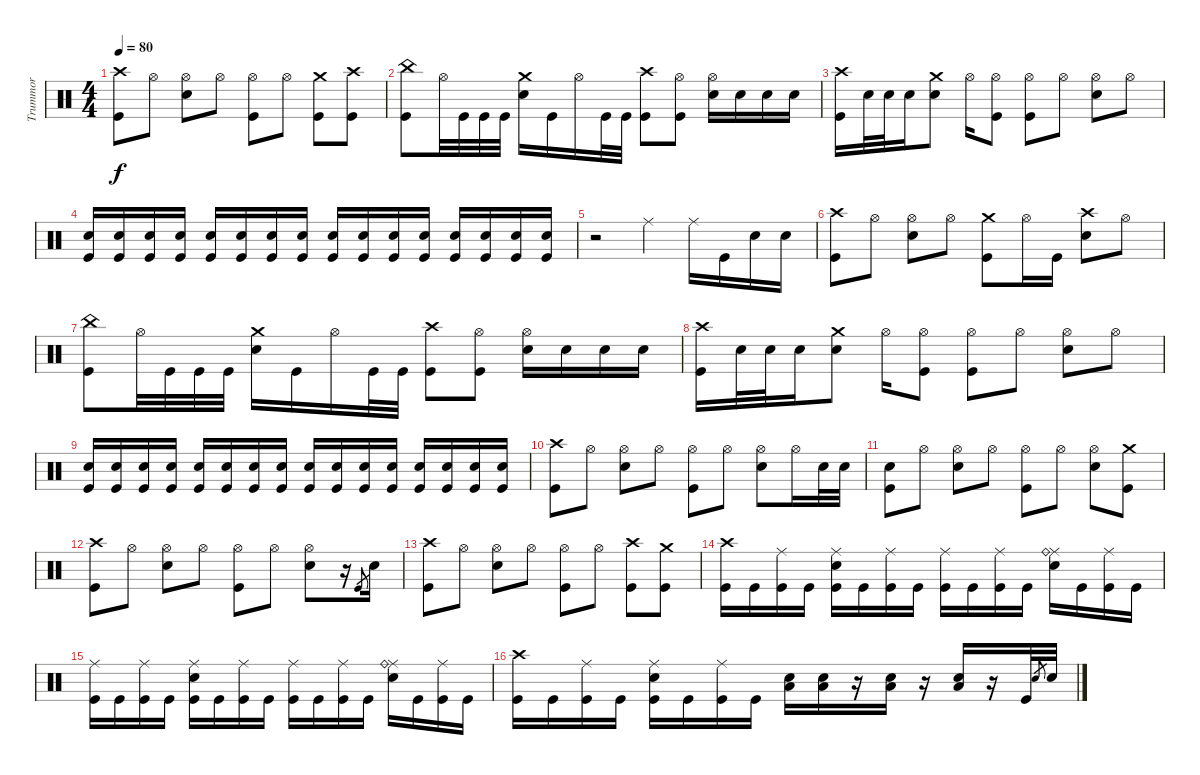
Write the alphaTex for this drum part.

\track ("Trummor" "Trummor") {instrument percussion}
\staff {score}
\articulation defaults
\ts (4 4)
\tempo 80
\clef neutral
\ks c
("Crash high (hit)" "Kick (hit)").8{dy f} "Hi-Hat (open)".8 ("Hi-Hat (open)" "Electric Snare (hit)").8 "Hi-Hat (open)".8 ("Hi-Hat (open)" "Kick (hit)").8 "Hi-Hat (open)".8 ("Crash medium (hit)" "Kick (hit)").8 ("Crash high (hit)" "Kick (hit)").8 |
("China (hit)" "Kick (hit)").8 "Hi-Hat (open)".32 "Kick (hit)".32 "Kick (hit)".32 "Kick (hit)".32 ("Crash medium (hit)" "Electric Snare (hit)").16 "Kick (hit)".16 "Hi-Hat (open)".16 "Kick (hit)".32 "Kick (hit)".32 ("Crash high (hit)" "Kick (hit)").8 ("Hi-Hat (open)" "Kick (hit)").8 ("Hi-Hat (open)" "Electric Snare (hit)").16 "Electric Snare (hit)".16 "Electric Snare (hit)".16 "Electric Snare (hit)".16 |
("Crash high (hit)" "Kick (hit)").16 "Electric Snare (hit)".32 "Electric Snare (hit)".32 "Electric Snare (hit)".16 ("Crash medium (hit)" "Electric Snare (hit)").8 "Hi-Hat (open)".16 ("Hi-Hat (open)" "Kick (hit)").8 ("Hi-Hat (open)" "Kick (hit)").8 "Hi-Hat (open)".8 ("Hi-Hat (open)" "Electric Snare (hit)").8 "Hi-Hat (open)".8 |
("Electric Snare (hit)" "Kick (hit)").16 ("Electric Snare (hit)" "Kick (hit)").16 ("Electric Snare (hit)" "Kick (hit)").16 ("Electric Snare (hit)" "Kick (hit)").16 ("Electric Snare (hit)" "Kick (hit)").16 ("Electric Snare (hit)" "Kick (hit)").16 ("Electric Snare (hit)" "Kick (hit)").16 ("Electric Snare (hit)" "Kick (hit)").16 ("Electric Snare (hit)" "Kick (hit)").16 ("Electric Snare (hit)" "Kick (hit)").16 ("Electric Snare (hit)" "Kick (hit)").16 ("Electric Snare (hit)" "Kick (hit)").16 ("Electric Snare (hit)" "Kick (hit)").16 ("Electric Snare (hit)" "Kick (hit)").16 ("Electric Snare (hit)" "Kick (hit)").16 ("Electric Snare (hit)" "Kick (hit)").16 |
r.2 "Ride (middle)".4 "Ride (middle)".16 "Kick (hit)".16 "Electric Snare (hit)".16 "Electric Snare (hit)".16 |
("Crash high (hit)" "Kick (hit)").8 "Hi-Hat (open)".8 ("Hi-Hat (open)" "Electric Snare (hit)").8 "Hi-Hat (open)".8 ("Crash medium (hit)" "Kick (hit)").8 "Hi-Hat (open)".16 "Kick (hit)".16 ("Crash high (hit)" "Electric Snare (hit)").8 "Hi-Hat (open)".8 |
("China (hit)" "Kick (hit)").8 "Hi-Hat (open)".32 "Kick (hit)".32 "Kick (hit)".32 "Kick (hit)".32 ("Crash medium (hit)" "Electric Snare (hit)").16 "Kick (hit)".16 "Hi-Hat (open)".16 "Kick (hit)".32 "Kick (hit)".32 ("Crash high (hit)" "Kick (hit)").8 ("Hi-Hat (open)" "Kick (hit)").8 ("Hi-Hat (open)" "Electric Snare (hit)").16 "Electric Snare (hit)".16 "Electric Snare (hit)".16 "Electric Snare (hit)".16 |
("Crash high (hit)" "Kick (hit)").16 "Electric Snare (hit)".32 "Electric Snare (hit)".32 "Electric Snare (hit)".16 ("Crash medium (hit)" "Electric Snare (hit)").8 "Hi-Hat (open)".16 ("Hi-Hat (open)" "Kick (hit)").8 ("Hi-Hat (open)" "Kick (hit)").8 "Hi-Hat (open)".8 ("Hi-Hat (open)" "Electric Snare (hit)").8 "Hi-Hat (open)".8 |
("Electric Snare (hit)" "Kick (hit)").16 ("Electric Snare (hit)" "Kick (hit)").16 ("Electric Snare (hit)" "Kick (hit)").16 ("Electric Snare (hit)" "Kick (hit)").16 ("Electric Snare (hit)" "Kick (hit)").16 ("Electric Snare (hit)" "Kick (hit)").16 ("Electric Snare (hit)" "Kick (hit)").16 ("Electric Snare (hit)" "Kick (hit)").16 ("Electric Snare (hit)" "Kick (hit)").16 ("Electric Snare (hit)" "Kick (hit)").16 ("Electric Snare (hit)" "Kick (hit)").16 ("Electric Snare (hit)" "Kick (hit)").16 ("Electric Snare (hit)" "Kick (hit)").16 ("Electric Snare (hit)" "Kick (hit)").16 ("Electric Snare (hit)" "Kick (hit)").16 ("Electric Snare (hit)" "Kick (hit)").16 |
("Crash high (hit)" "Kick (hit)").8 "Hi-Hat (open)".8 ("Hi-Hat (open)" "Electric Snare (hit)").8 "Hi-Hat (open)".8 ("Hi-Hat (open)" "Kick (hit)").8 "Hi-Hat (open)".8 ("Hi-Hat (open)" "Electric Snare (hit)").8 "Hi-Hat (open)".16 "Electric Snare (hit)".32 "Electric Snare (hit)".32 |
("Electric Snare (hit)" "Kick (hit)").8 "Hi-Hat (open)".8 ("Hi-Hat (open)" "Electric Snare (hit)").8 "Hi-Hat (open)".8 ("Hi-Hat (open)" "Kick (hit)").8 "Hi-Hat (open)".8 ("Hi-Hat (open)" "Electric Snare (hit)").8 ("Crash medium (hit)" "Kick (hit)").8 |
("Crash high (hit)" "Kick (hit)").8 "Hi-Hat (open)".8 ("Hi-Hat (open)" "Electric Snare (hit)").8 "Hi-Hat (open)".8 ("Hi-Hat (open)" "Kick (hit)").8 "Hi-Hat (open)".8 ("Hi-Hat (open)" "Electric Snare (hit)").8 r.16 "Kick (hit)"{sl}.8{gr} "Electric Snare (hit)".16 |
("Crash high (hit)" "Kick (hit)").8 "Hi-Hat (open)".8 ("Hi-Hat (open)" "Electric Snare (hit)").8 "Hi-Hat (open)".8 ("Hi-Hat (open)" "Kick (hit)").8 "Hi-Hat (open)".8 ("Crash high (hit)" "Kick (hit)").8 ("Crash medium (hit)" "Kick (hit)").8 |
("Crash high (hit)" "Kick (hit)").16 "Kick (hit)".16 ("Ride (middle)" "Kick (hit)").16 "Kick (hit)".16 ("Ride (middle)" "Electric Snare (hit)" "Kick (hit)").16 "Kick (hit)".16 ("Ride (middle)" "Kick (hit)").16 "Kick (hit)".16 ("Ride (middle)" "Kick (hit)").16 "Kick (hit)".16 ("Ride (middle)" "Kick (hit)").16 "Kick (hit)".16 ("Ride (middle)" "Electric Snare (hit)" "Ride (bell)").16 "Kick (hit)".16 ("Ride (middle)" "Kick (hit)").16 "Kick (hit)".16 |
("Ride (middle)" "Kick (hit)").16 "Kick (hit)".16 ("Ride (middle)" "Kick (hit)").16 "Kick (hit)".16 ("Ride (middle)" "Electric Snare (hit)" "Kick (hit)").16 "Kick (hit)".16 ("Ride (middle)" "Kick (hit)").16 "Kick (hit)".16 ("Ride (middle)" "Kick (hit)").16 "Kick (hit)".16 ("Ride (middle)" "Kick (hit)").16 "Kick (hit)".16 ("Ride (middle)" "Electric Snare (hit)" "Ride (bell)").16 "Kick (hit)".16 ("Ride (middle)" "Kick (hit)").16 "Kick (hit)".16 |
("Crash high (hit)" "Kick (hit)").16 "Kick (hit)".16 ("Ride (middle)" "Kick (hit)").16 "Kick (hit)".16 ("Ride (middle)" "Electric Snare (hit)" "Kick (hit)").16 "Kick (hit)".16 ("Ride (middle)" "Kick (hit)").16 "Kick (hit)".16 ("Electric Snare (hit)" "Low Floor Tom (hit)").16 ("Electric Snare (hit)" "Low Floor Tom (hit)").16 r.16 ("Electric Snare (hit)" "Low Floor Tom (hit)").16 r.16 ("Electric Snare (hit)" "Low Floor Tom (hit)").16 r.16 "Kick (hit)".32 "Electric Snare (hit)"{sl}.8{gr} "Electric Snare (hit)".32
